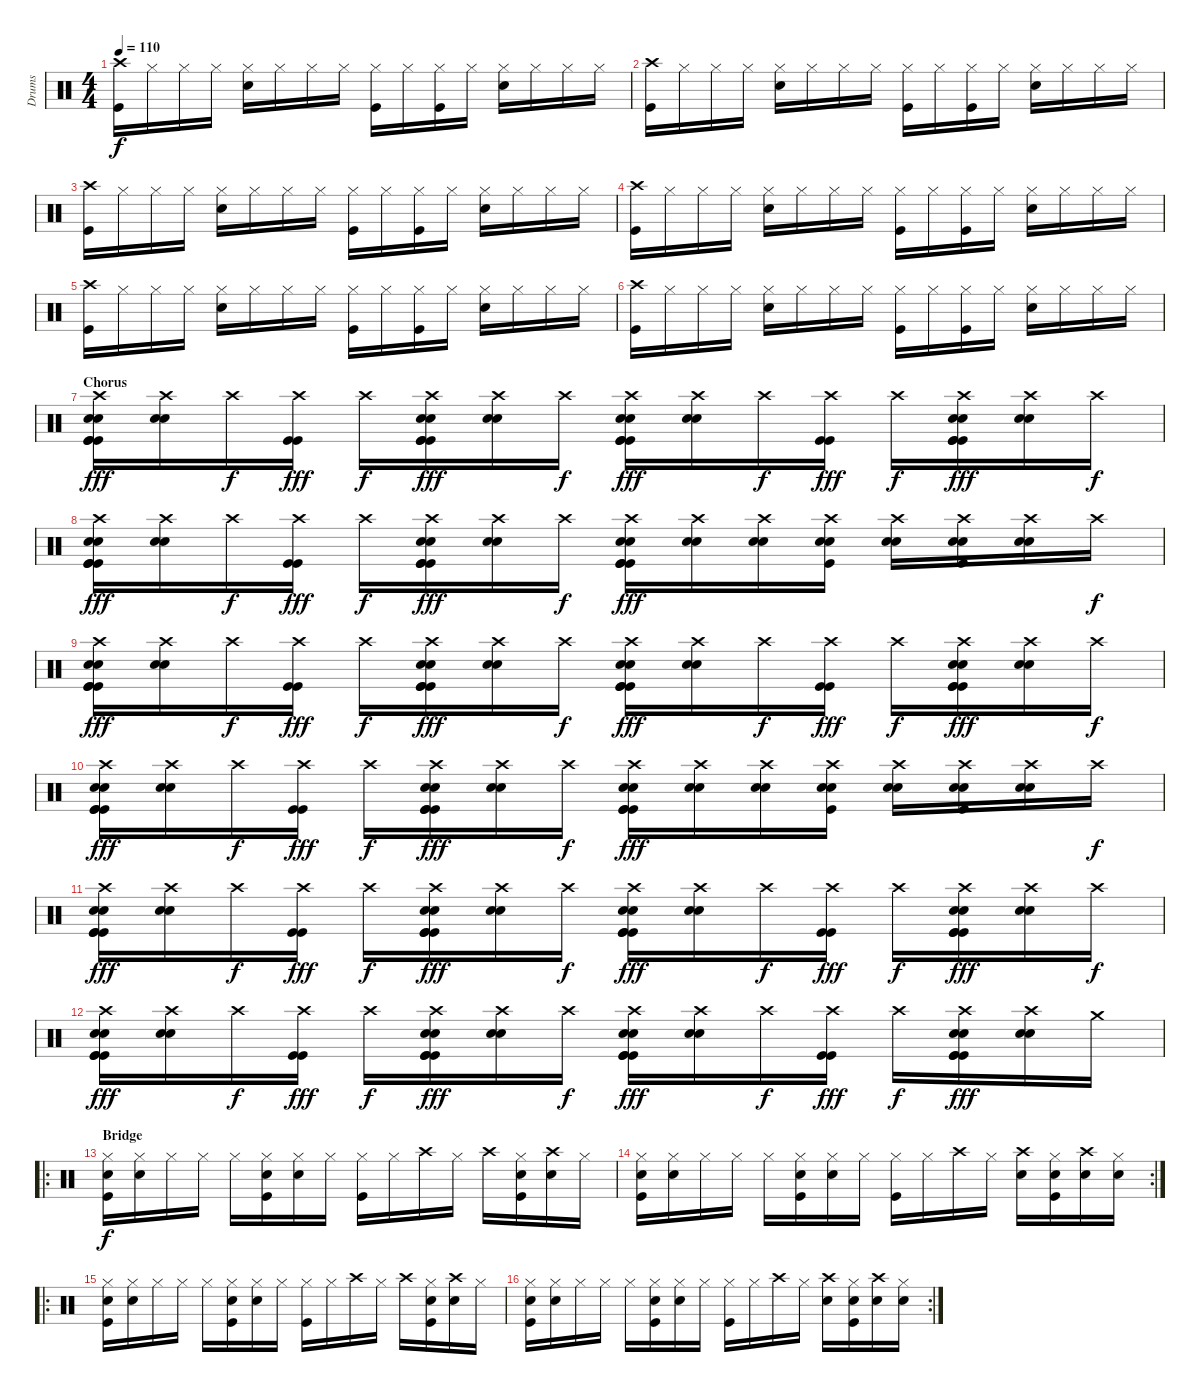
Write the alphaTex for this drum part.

\track ("Drums" "Drums") {instrument percussion}
\staff {score}
\articulation defaults
\ts (4 4)
\tempo 110
\clef neutral
\ks c
("Crash high (hit)" "Kick (hit)").16{dy f} "Hi-Hat (closed)".16 "Hi-Hat (closed)".16 "Hi-Hat (closed)".16 ("Hi-Hat (closed)" "Electric Snare (hit)").16 "Hi-Hat (closed)".16 "Hi-Hat (closed)".16 "Hi-Hat (closed)".16 ("Hi-Hat (closed)" "Kick (hit)").16 "Hi-Hat (closed)".16 ("Hi-Hat (closed)" "Kick (hit)").16 "Hi-Hat (closed)".16 ("Hi-Hat (closed)" "Electric Snare (hit)").16 "Hi-Hat (closed)".16 "Hi-Hat (closed)".16 "Hi-Hat (closed)".16 |
("Crash high (hit)" "Kick (hit)").16 "Hi-Hat (closed)".16 "Hi-Hat (closed)".16 "Hi-Hat (closed)".16 ("Hi-Hat (closed)" "Electric Snare (hit)").16 "Hi-Hat (closed)".16 "Hi-Hat (closed)".16 "Hi-Hat (closed)".16 ("Hi-Hat (closed)" "Kick (hit)").16 "Hi-Hat (closed)".16 ("Hi-Hat (closed)" "Kick (hit)").16 "Hi-Hat (closed)".16 ("Hi-Hat (closed)" "Electric Snare (hit)").16 "Hi-Hat (closed)".16 "Hi-Hat (closed)".16 "Hi-Hat (closed)".16 |
("Crash high (hit)" "Kick (hit)").16 "Hi-Hat (closed)".16 "Hi-Hat (closed)".16 "Hi-Hat (closed)".16 ("Hi-Hat (closed)" "Electric Snare (hit)").16 "Hi-Hat (closed)".16 "Hi-Hat (closed)".16 "Hi-Hat (closed)".16 ("Hi-Hat (closed)" "Kick (hit)").16 "Hi-Hat (closed)".16 ("Hi-Hat (closed)" "Kick (hit)").16 "Hi-Hat (closed)".16 ("Hi-Hat (closed)" "Electric Snare (hit)").16 "Hi-Hat (closed)".16 "Hi-Hat (closed)".16 "Hi-Hat (closed)".16 |
("Crash high (hit)" "Kick (hit)").16 "Hi-Hat (closed)".16 "Hi-Hat (closed)".16 "Hi-Hat (closed)".16 ("Hi-Hat (closed)" "Electric Snare (hit)").16 "Hi-Hat (closed)".16 "Hi-Hat (closed)".16 "Hi-Hat (closed)".16 ("Hi-Hat (closed)" "Kick (hit)").16 "Hi-Hat (closed)".16 ("Hi-Hat (closed)" "Kick (hit)").16 "Hi-Hat (closed)".16 ("Hi-Hat (closed)" "Electric Snare (hit)").16 "Hi-Hat (closed)".16 "Hi-Hat (closed)".16 "Hi-Hat (closed)".16 |
("Crash high (hit)" "Kick (hit)").16 "Hi-Hat (closed)".16 "Hi-Hat (closed)".16 "Hi-Hat (closed)".16 ("Hi-Hat (closed)" "Electric Snare (hit)").16 "Hi-Hat (closed)".16 "Hi-Hat (closed)".16 "Hi-Hat (closed)".16 ("Hi-Hat (closed)" "Kick (hit)").16 "Hi-Hat (closed)".16 ("Hi-Hat (closed)" "Kick (hit)").16 "Hi-Hat (closed)".16 ("Hi-Hat (closed)" "Electric Snare (hit)").16 "Hi-Hat (closed)".16 "Hi-Hat (closed)".16 "Hi-Hat (closed)".16 |
("Crash high (hit)" "Kick (hit)").16 "Hi-Hat (closed)".16 "Hi-Hat (closed)".16 "Hi-Hat (closed)".16 ("Hi-Hat (closed)" "Electric Snare (hit)").16 "Hi-Hat (closed)".16 "Hi-Hat (closed)".16 "Hi-Hat (closed)".16 ("Hi-Hat (closed)" "Kick (hit)").16 "Hi-Hat (closed)".16 ("Hi-Hat (closed)" "Kick (hit)").16 "Hi-Hat (closed)".16 ("Hi-Hat (closed)" "Electric Snare (hit)").16 "Hi-Hat (closed)".16 "Hi-Hat (closed)".16 "Hi-Hat (closed)".16 |
\section ("" "Chorus")
("Crash high (hit)" "Kick (hit)" "Electric Snare (hit)" "Electric Snare (hit)" "Kick (hit)" "Kick (hit)").16{dy fff} ("Crash high (hit)" "Electric Snare (hit)" "Electric Snare (hit)").16 "Crash high (hit)".16{dy f} ("Crash high (hit)" "Kick (hit)" "Kick (hit)").16{dy fff} "Crash high (hit)".16{dy f} ("Crash high (hit)" "Kick (hit)" "Electric Snare (hit)" "Electric Snare (hit)" "Kick (hit)" "Kick (hit)").16{dy fff} ("Crash high (hit)" "Electric Snare (hit)" "Electric Snare (hit)").16 "Crash high (hit)".16{dy f} ("Crash high (hit)" "Kick (hit)" "Kick (hit)" "Electric Snare (hit)" "Electric Snare (hit)" "Kick (hit)").16{dy fff} ("Crash high (hit)" "Electric Snare (hit)" "Electric Snare (hit)").16 "Crash high (hit)".16{dy f} ("Crash high (hit)" "Kick (hit)" "Kick (hit)").16{dy fff} "Crash high (hit)".16{dy f} ("Crash high (hit)" "Kick (hit)" "Electric Snare (hit)" "Electric Snare (hit)" "Kick (hit)" "Kick (hit)").16{dy fff} ("Crash high (hit)" "Electric Snare (hit)" "Electric Snare (hit)").16 "Crash high (hit)".16{dy f} |
("Crash high (hit)" "Kick (hit)" "Electric Snare (hit)" "Electric Snare (hit)" "Kick (hit)" "Kick (hit)").16{dy fff} ("Crash high (hit)" "Electric Snare (hit)" "Electric Snare (hit)").16 "Crash high (hit)".16{dy f} ("Crash high (hit)" "Kick (hit)" "Kick (hit)").16{dy fff} "Crash high (hit)".16{dy f} ("Crash high (hit)" "Kick (hit)" "Electric Snare (hit)" "Electric Snare (hit)" "Kick (hit)" "Kick (hit)").16{dy fff} ("Crash high (hit)" "Electric Snare (hit)" "Electric Snare (hit)").16 "Crash high (hit)".16{dy f} ("Crash high (hit)" "Kick (hit)" "Kick (hit)" "Electric Snare (hit)" "Electric Snare (hit)" "Kick (hit)").16{dy fff} ("Crash high (hit)" "Electric Snare (hit)" "Electric Snare (hit)").16 ("Crash high (hit)" "Electric Snare (hit)" "Electric Snare (hit)").16 ("Crash high (hit)" "Electric Snare (hit)" "Electric Snare (hit)" "Kick (hit)").16 ("Crash high (hit)" "Electric Snare (hit)" "Electric Snare (hit)").16 ("Crash high (hit)" "Electric Snare (hit)" "Electric Snare (hit)" "Kick (hit)").16 ("Crash high (hit)" "Electric Snare (hit)" "Electric Snare (hit)").16 "Crash high (hit)".16{dy f} |
("Crash high (hit)" "Kick (hit)" "Electric Snare (hit)" "Electric Snare (hit)" "Kick (hit)" "Kick (hit)").16{dy fff} ("Crash high (hit)" "Electric Snare (hit)" "Electric Snare (hit)").16 "Crash high (hit)".16{dy f} ("Crash high (hit)" "Kick (hit)" "Kick (hit)").16{dy fff} "Crash high (hit)".16{dy f} ("Crash high (hit)" "Kick (hit)" "Electric Snare (hit)" "Electric Snare (hit)" "Kick (hit)" "Kick (hit)").16{dy fff} ("Crash high (hit)" "Electric Snare (hit)" "Electric Snare (hit)").16 "Crash high (hit)".16{dy f} ("Crash high (hit)" "Kick (hit)" "Kick (hit)" "Electric Snare (hit)" "Electric Snare (hit)" "Kick (hit)").16{dy fff} ("Crash high (hit)" "Electric Snare (hit)" "Electric Snare (hit)").16 "Crash high (hit)".16{dy f} ("Crash high (hit)" "Kick (hit)" "Kick (hit)").16{dy fff} "Crash high (hit)".16{dy f} ("Crash high (hit)" "Kick (hit)" "Electric Snare (hit)" "Electric Snare (hit)" "Kick (hit)" "Kick (hit)").16{dy fff} ("Crash high (hit)" "Electric Snare (hit)" "Electric Snare (hit)").16 "Crash high (hit)".16{dy f} |
("Crash high (hit)" "Kick (hit)" "Electric Snare (hit)" "Electric Snare (hit)" "Kick (hit)" "Kick (hit)").16{dy fff} ("Crash high (hit)" "Electric Snare (hit)" "Electric Snare (hit)").16 "Crash high (hit)".16{dy f} ("Crash high (hit)" "Kick (hit)" "Kick (hit)").16{dy fff} "Crash high (hit)".16{dy f} ("Crash high (hit)" "Kick (hit)" "Electric Snare (hit)" "Electric Snare (hit)" "Kick (hit)" "Kick (hit)").16{dy fff} ("Crash high (hit)" "Electric Snare (hit)" "Electric Snare (hit)").16 "Crash high (hit)".16{dy f} ("Crash high (hit)" "Kick (hit)" "Kick (hit)" "Electric Snare (hit)" "Electric Snare (hit)" "Kick (hit)").16{dy fff} ("Crash high (hit)" "Electric Snare (hit)" "Electric Snare (hit)").16 ("Crash high (hit)" "Electric Snare (hit)" "Electric Snare (hit)").16 ("Crash high (hit)" "Electric Snare (hit)" "Electric Snare (hit)" "Kick (hit)").16 ("Crash high (hit)" "Electric Snare (hit)" "Electric Snare (hit)").16 ("Crash high (hit)" "Electric Snare (hit)" "Electric Snare (hit)" "Kick (hit)").16 ("Crash high (hit)" "Electric Snare (hit)" "Electric Snare (hit)").16 "Crash high (hit)".16{dy f} |
("Crash high (hit)" "Kick (hit)" "Electric Snare (hit)" "Electric Snare (hit)" "Kick (hit)" "Kick (hit)").16{dy fff} ("Crash high (hit)" "Electric Snare (hit)" "Electric Snare (hit)").16 "Crash high (hit)".16{dy f} ("Crash high (hit)" "Kick (hit)" "Kick (hit)").16{dy fff} "Crash high (hit)".16{dy f} ("Crash high (hit)" "Kick (hit)" "Electric Snare (hit)" "Electric Snare (hit)" "Kick (hit)" "Kick (hit)").16{dy fff} ("Crash high (hit)" "Electric Snare (hit)" "Electric Snare (hit)").16 "Crash high (hit)".16{dy f} ("Crash high (hit)" "Kick (hit)" "Kick (hit)" "Electric Snare (hit)" "Electric Snare (hit)" "Kick (hit)").16{dy fff} ("Crash high (hit)" "Electric Snare (hit)" "Electric Snare (hit)").16 "Crash high (hit)".16{dy f} ("Crash high (hit)" "Kick (hit)" "Kick (hit)").16{dy fff} "Crash high (hit)".16{dy f} ("Crash high (hit)" "Kick (hit)" "Electric Snare (hit)" "Electric Snare (hit)" "Kick (hit)" "Kick (hit)").16{dy fff} ("Crash high (hit)" "Electric Snare (hit)" "Electric Snare (hit)").16 "Crash high (hit)".16{dy f} |
("Crash high (hit)" "Kick (hit)" "Electric Snare (hit)" "Electric Snare (hit)" "Kick (hit)" "Kick (hit)").16{dy fff} ("Crash high (hit)" "Electric Snare (hit)" "Electric Snare (hit)").16 "Crash high (hit)".16{dy f} ("Crash high (hit)" "Kick (hit)" "Kick (hit)").16{dy fff} "Crash high (hit)".16{dy f} ("Crash high (hit)" "Kick (hit)" "Electric Snare (hit)" "Electric Snare (hit)" "Kick (hit)" "Kick (hit)").16{dy fff} ("Crash high (hit)" "Electric Snare (hit)" "Electric Snare (hit)").16 "Crash high (hit)".16{dy f} ("Crash high (hit)" "Kick (hit)" "Kick (hit)" "Electric Snare (hit)" "Electric Snare (hit)" "Kick (hit)").16{dy fff} ("Crash high (hit)" "Electric Snare (hit)" "Electric Snare (hit)").16 "Crash high (hit)".16{dy f} ("Crash high (hit)" "Kick (hit)" "Kick (hit)").16{dy fff} "Crash high (hit)".16{dy f} ("Crash high (hit)" "Kick (hit)" "Electric Snare (hit)" "Electric Snare (hit)" "Kick (hit)" "Kick (hit)").16{dy fff} ("Crash high (hit)" "Electric Snare (hit)" "Electric Snare (hit)").16 "Crash medium (hit)".16 |
\ro
\section ("" "Bridge")
("Hi-Hat (closed)" "Electric Snare (hit)" "Kick (hit)").16{dy f} ("Hi-Hat (closed)" "Electric Snare (hit)").16 "Hi-Hat (closed)".16 "Hi-Hat (closed)".16 "Hi-Hat (closed)".16 ("Hi-Hat (closed)" "Electric Snare (hit)" "Kick (hit)").16 ("Hi-Hat (closed)" "Electric Snare (hit)").16 "Hi-Hat (closed)".16 ("Hi-Hat (closed)" "Kick (hit)").16 "Hi-Hat (closed)".16 "Crash high (hit)".16 "Hi-Hat (closed)".16 "Crash high (hit)".16 ("Hi-Hat (closed)" "Electric Snare (hit)" "Kick (hit)").16 ("Crash high (hit)" "Electric Snare (hit)").16 "Hi-Hat (closed)".16 |
\rc 2
("Hi-Hat (closed)" "Electric Snare (hit)" "Kick (hit)").16 ("Hi-Hat (closed)" "Electric Snare (hit)").16 "Hi-Hat (closed)".16 "Hi-Hat (closed)".16 "Hi-Hat (closed)".16 ("Hi-Hat (closed)" "Electric Snare (hit)" "Kick (hit)").16 ("Hi-Hat (closed)" "Electric Snare (hit)").16 "Hi-Hat (closed)".16 ("Hi-Hat (closed)" "Kick (hit)").16 "Hi-Hat (closed)".16 "Crash high (hit)".16 "Hi-Hat (closed)".16 ("Crash high (hit)" "Electric Snare (hit)").16 ("Hi-Hat (closed)" "Electric Snare (hit)" "Kick (hit)").16 ("Crash high (hit)" "Electric Snare (hit)").16 ("Hi-Hat (closed)" "Electric Snare (hit)").16 |
\ro
("Hi-Hat (closed)" "Electric Snare (hit)" "Kick (hit)").16 ("Hi-Hat (closed)" "Electric Snare (hit)").16 "Hi-Hat (closed)".16 "Hi-Hat (closed)".16 "Hi-Hat (closed)".16 ("Hi-Hat (closed)" "Electric Snare (hit)" "Kick (hit)").16 ("Hi-Hat (closed)" "Electric Snare (hit)").16 "Hi-Hat (closed)".16 ("Hi-Hat (closed)" "Kick (hit)").16 "Hi-Hat (closed)".16 "Crash high (hit)".16 "Hi-Hat (closed)".16 "Crash high (hit)".16 ("Hi-Hat (closed)" "Electric Snare (hit)" "Kick (hit)").16 ("Crash high (hit)" "Electric Snare (hit)").16 "Hi-Hat (closed)".16 |
\rc 2
("Hi-Hat (closed)" "Electric Snare (hit)" "Kick (hit)").16 ("Hi-Hat (closed)" "Electric Snare (hit)").16 "Hi-Hat (closed)".16 "Hi-Hat (closed)".16 "Hi-Hat (closed)".16 ("Hi-Hat (closed)" "Electric Snare (hit)" "Kick (hit)").16 ("Hi-Hat (closed)" "Electric Snare (hit)").16 "Hi-Hat (closed)".16 ("Hi-Hat (closed)" "Kick (hit)").16 "Hi-Hat (closed)".16 "Crash high (hit)".16 "Hi-Hat (closed)".16 ("Crash high (hit)" "Electric Snare (hit)").16 ("Hi-Hat (closed)" "Electric Snare (hit)" "Kick (hit)").16 ("Crash high (hit)" "Electric Snare (hit)").16 ("Hi-Hat (closed)" "Electric Snare (hit)").16
